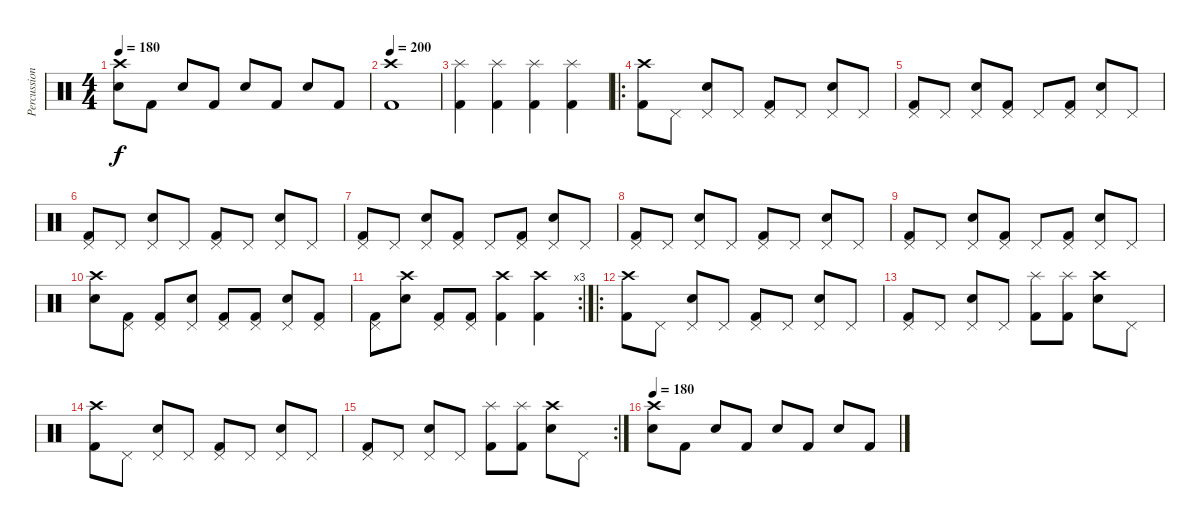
\track ("Percussion" "Percussion") {instrument percussion}
\staff {score}
\articulation defaults
\ts (4 4)
\tempo 180
\clef neutral
\ks c
("Electric Snare (hit)" "Crash high (hit)").8{dy f} "Kick (hit) 2".8 "Electric Snare (hit)".8 "Kick (hit) 2".8 "Electric Snare (hit)".8 "Kick (hit) 2".8 "Electric Snare (hit)".8 "Kick (hit) 2".8 |
\tempo 200
("Kick (hit) 2" "Crash high (hit)").1 |
("Kick (hit) 2" "Splash (hit)").4 ("Kick (hit) 2" "Splash (hit)").4 ("Kick (hit) 2" "Splash (hit)").4 ("Kick (hit) 2" "Splash (hit)").4 |
\ro
("Kick (hit) 2" "Crash high (hit)").8 "Pedal Hi-Hat (hit)".8 ("Electric Snare (hit)" "Pedal Hi-Hat (hit)").8 "Pedal Hi-Hat (hit)".8 ("Kick (hit) 2" "Pedal Hi-Hat (hit)").8 "Pedal Hi-Hat (hit)".8 ("Electric Snare (hit)" "Pedal Hi-Hat (hit)").8 "Pedal Hi-Hat (hit)".8 |
("Kick (hit) 2" "Pedal Hi-Hat (hit)").8 "Pedal Hi-Hat (hit)".8 ("Electric Snare (hit)" "Pedal Hi-Hat (hit)").8 ("Kick (hit) 2" "Pedal Hi-Hat (hit)").8 "Pedal Hi-Hat (hit)".8 ("Kick (hit) 2" "Pedal Hi-Hat (hit)").8 ("Electric Snare (hit)" "Pedal Hi-Hat (hit)").8 "Pedal Hi-Hat (hit)".8 |
("Kick (hit) 2" "Pedal Hi-Hat (hit)").8 "Pedal Hi-Hat (hit)".8 ("Electric Snare (hit)" "Pedal Hi-Hat (hit)").8 "Pedal Hi-Hat (hit)".8 ("Kick (hit) 2" "Pedal Hi-Hat (hit)").8 "Pedal Hi-Hat (hit)".8 ("Electric Snare (hit)" "Pedal Hi-Hat (hit)").8 "Pedal Hi-Hat (hit)".8 |
("Kick (hit) 2" "Pedal Hi-Hat (hit)").8 "Pedal Hi-Hat (hit)".8 ("Electric Snare (hit)" "Pedal Hi-Hat (hit)").8 ("Kick (hit) 2" "Pedal Hi-Hat (hit)").8 "Pedal Hi-Hat (hit)".8 ("Kick (hit) 2" "Pedal Hi-Hat (hit)").8 ("Electric Snare (hit)" "Pedal Hi-Hat (hit)").8 "Pedal Hi-Hat (hit)".8 |
("Kick (hit) 2" "Pedal Hi-Hat (hit)").8 "Pedal Hi-Hat (hit)".8 ("Electric Snare (hit)" "Pedal Hi-Hat (hit)").8 "Pedal Hi-Hat (hit)".8 ("Kick (hit) 2" "Pedal Hi-Hat (hit)").8 "Pedal Hi-Hat (hit)".8 ("Electric Snare (hit)" "Pedal Hi-Hat (hit)").8 "Pedal Hi-Hat (hit)".8 |
("Kick (hit) 2" "Pedal Hi-Hat (hit)").8 "Pedal Hi-Hat (hit)".8 ("Electric Snare (hit)" "Pedal Hi-Hat (hit)").8 ("Kick (hit) 2" "Pedal Hi-Hat (hit)").8 "Pedal Hi-Hat (hit)".8 ("Kick (hit) 2" "Pedal Hi-Hat (hit)").8 ("Electric Snare (hit)" "Pedal Hi-Hat (hit)").8 "Pedal Hi-Hat (hit)".8 |
("Electric Snare (hit)" "Crash high (hit)").8 ("Kick (hit) 2" "Pedal Hi-Hat (hit)").8 ("Kick (hit) 2" "Pedal Hi-Hat (hit)").8 ("Electric Snare (hit)" "Pedal Hi-Hat (hit)").8 ("Kick (hit) 2" "Pedal Hi-Hat (hit)").8 ("Kick (hit) 2" "Pedal Hi-Hat (hit)").8 ("Electric Snare (hit)" "Pedal Hi-Hat (hit)").8 ("Kick (hit) 2" "Pedal Hi-Hat (hit)").8 |
\rc 3
("Kick (hit) 2" "Pedal Hi-Hat (hit)").8 ("Electric Snare (hit)" "Crash high (hit)").8 ("Kick (hit) 2" "Pedal Hi-Hat (hit)").8 ("Kick (hit) 2" "Pedal Hi-Hat (hit)").8 ("Kick (hit) 2" "Crash high (hit)").4 ("Kick (hit) 2" "Crash high (hit)").4 |
\ro
("Kick (hit) 2" "Crash high (hit)").8 "Pedal Hi-Hat (hit)".8 ("Electric Snare (hit)" "Pedal Hi-Hat (hit)").8 "Pedal Hi-Hat (hit)".8 ("Kick (hit) 2" "Pedal Hi-Hat (hit)").8 "Pedal Hi-Hat (hit)".8 ("Electric Snare (hit)" "Pedal Hi-Hat (hit)").8 "Pedal Hi-Hat (hit)".8 |
("Kick (hit) 2" "Pedal Hi-Hat (hit)").8 "Pedal Hi-Hat (hit)".8 ("Electric Snare (hit)" "Pedal Hi-Hat (hit)").8 "Pedal Hi-Hat (hit)".8 ("Kick (hit) 2" "Splash (hit)").8 ("Kick (hit) 2" "Splash (hit)").8 ("Electric Snare (hit)" "Crash high (hit)").8 "Pedal Hi-Hat (hit)".8 |
("Kick (hit) 2" "Crash high (hit)").8 "Pedal Hi-Hat (hit)".8 ("Electric Snare (hit)" "Pedal Hi-Hat (hit)").8 "Pedal Hi-Hat (hit)".8 ("Kick (hit) 2" "Pedal Hi-Hat (hit)").8 "Pedal Hi-Hat (hit)".8 ("Electric Snare (hit)" "Pedal Hi-Hat (hit)").8 "Pedal Hi-Hat (hit)".8 |
\rc 2
("Kick (hit) 2" "Pedal Hi-Hat (hit)").8 "Pedal Hi-Hat (hit)".8 ("Electric Snare (hit)" "Pedal Hi-Hat (hit)").8 "Pedal Hi-Hat (hit)".8 ("Kick (hit) 2" "Splash (hit)").8 ("Kick (hit) 2" "Splash (hit)").8 ("Electric Snare (hit)" "Crash high (hit)").8 "Pedal Hi-Hat (hit)".8 |
\tempo 180
("Electric Snare (hit)" "Crash high (hit)").8 "Kick (hit) 2".8 "Electric Snare (hit)".8 "Kick (hit) 2".8 "Electric Snare (hit)".8 "Kick (hit) 2".8 "Electric Snare (hit)".8 "Kick (hit) 2".8
